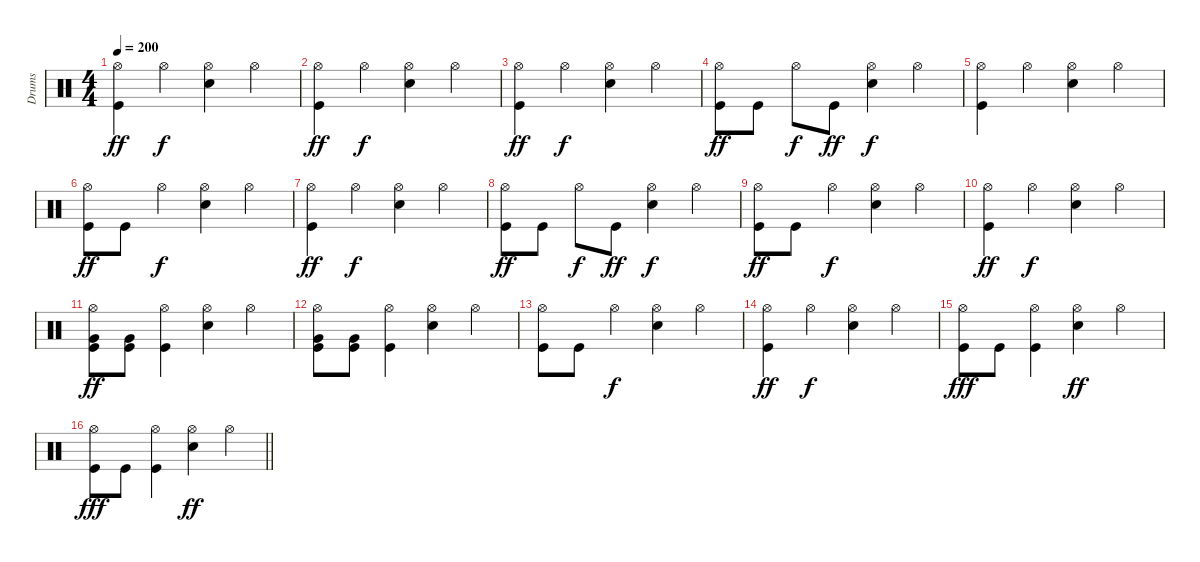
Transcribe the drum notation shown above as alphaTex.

\track ("Drums" "Drums") {instrument percussion}
\staff {score}
\articulation defaults
\ts (4 4)
\tempo 200
\clef neutral
\ks c
("Hi-Hat (open)" "Kick (hit)").4{dy ff} "Hi-Hat (open)".4{dy f} ("Hi-Hat (open)" "Electric Snare (hit)").4 "Hi-Hat (open)".4 |
("Hi-Hat (open)" "Kick (hit)").4{dy ff} "Hi-Hat (open)".4{dy f} ("Hi-Hat (open)" "Electric Snare (hit)").4 "Hi-Hat (open)".4 |
("Hi-Hat (open)" "Kick (hit)").4{dy ff} "Hi-Hat (open)".4{dy f} ("Hi-Hat (open)" "Electric Snare (hit)").4 "Hi-Hat (open)".4 |
("Hi-Hat (open)" "Kick (hit)").8{dy ff} "Kick (hit)".8 "Hi-Hat (open)".8{dy f} "Kick (hit)".8{dy ff} ("Hi-Hat (open)" "Electric Snare (hit)").4{dy f} "Hi-Hat (open)".4 |
("Hi-Hat (open)" "Kick (hit)").4 "Hi-Hat (open)".4 ("Hi-Hat (open)" "Electric Snare (hit)").4 "Hi-Hat (open)".4 |
("Hi-Hat (open)" "Kick (hit)").8{dy ff} "Kick (hit)".8 "Hi-Hat (open)".4{dy f} ("Hi-Hat (open)" "Electric Snare (hit)").4 "Hi-Hat (open)".4 |
("Hi-Hat (open)" "Kick (hit)").4{dy ff} "Hi-Hat (open)".4{dy f} ("Hi-Hat (open)" "Electric Snare (hit)").4 "Hi-Hat (open)".4 |
("Hi-Hat (open)" "Kick (hit)").8{dy ff} "Kick (hit)".8 "Hi-Hat (open)".8{dy f} "Kick (hit)".8{dy ff} ("Hi-Hat (open)" "Electric Snare (hit)").4{dy f} "Hi-Hat (open)".4 |
("Hi-Hat (open)" "Kick (hit)").8{dy ff} "Kick (hit)".8 "Hi-Hat (open)".4{dy f} ("Hi-Hat (open)" "Electric Snare (hit)").4 "Hi-Hat (open)".4 |
("Hi-Hat (open)" "Kick (hit)").4{dy ff} "Hi-Hat (open)".4{dy f} ("Hi-Hat (open)" "Electric Snare (hit)").4 "Hi-Hat (open)".4 |
("Hi-Hat (open)" "Very Low Tom (hit)" "Kick (hit)").8{dy ff} ("Very Low Tom (hit)" "Kick (hit)").8 ("Hi-Hat (open)" "Kick (hit)").4 ("Hi-Hat (open)" "Electric Snare (hit)").4 "Hi-Hat (open)".4 |
("Hi-Hat (open)" "Very Low Tom (hit)" "Kick (hit)").8 ("Very Low Tom (hit)" "Kick (hit)").8 ("Hi-Hat (open)" "Kick (hit)").4 ("Hi-Hat (open)" "Electric Snare (hit)").4 "Hi-Hat (open)".4 |
("Hi-Hat (open)" "Kick (hit)").8 "Kick (hit)".8 "Hi-Hat (open)".4{dy f} ("Hi-Hat (open)" "Electric Snare (hit)").4 "Hi-Hat (open)".4 |
("Hi-Hat (open)" "Kick (hit)").4{dy ff} "Hi-Hat (open)".4{dy f} ("Hi-Hat (open)" "Electric Snare (hit)").4 "Hi-Hat (open)".4 |
("Hi-Hat (open)" "Kick (hit)").8{dy fff} "Kick (hit)".8 ("Hi-Hat (open)" "Kick (hit)").4 ("Hi-Hat (open)" "Electric Snare (hit)").4{dy ff} "Hi-Hat (open)".4 |
\barLineRight lightlight
("Hi-Hat (open)" "Kick (hit)").8{dy fff} "Kick (hit)".8 ("Hi-Hat (open)" "Kick (hit)").4 ("Hi-Hat (open)" "Electric Snare (hit)").4{dy ff} "Hi-Hat (open)".4
